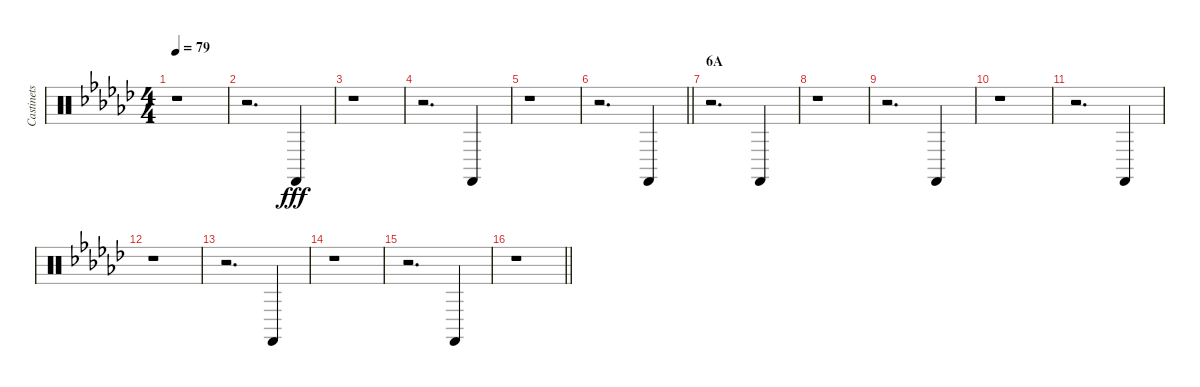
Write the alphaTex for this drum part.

\track ("Castinets" "Castinets") {instrument percussion}
\staff {score}
\articulation defaults
\ts (4 4)
\tempo 79
\clef neutral
\ks gb
r.1{dy fff} |
r.2{d} "Castanets (hit)".4 |
r.1 |
r.2{d} "Castanets (hit)".4 |
r.1 |
\barLineRight lightlight
r.2{d} "Castanets (hit)".4 |
\section ("" "6A")
r.2{d} "Castanets (hit)".4 |
r.1 |
r.2{d} "Castanets (hit)".4 |
r.1 |
r.2{d} "Castanets (hit)".4 |
r.1 |
r.2{d} "Castanets (hit)".4 |
r.1 |
r.2{d} "Castanets (hit)".4 |
\barLineRight lightlight
r.1
